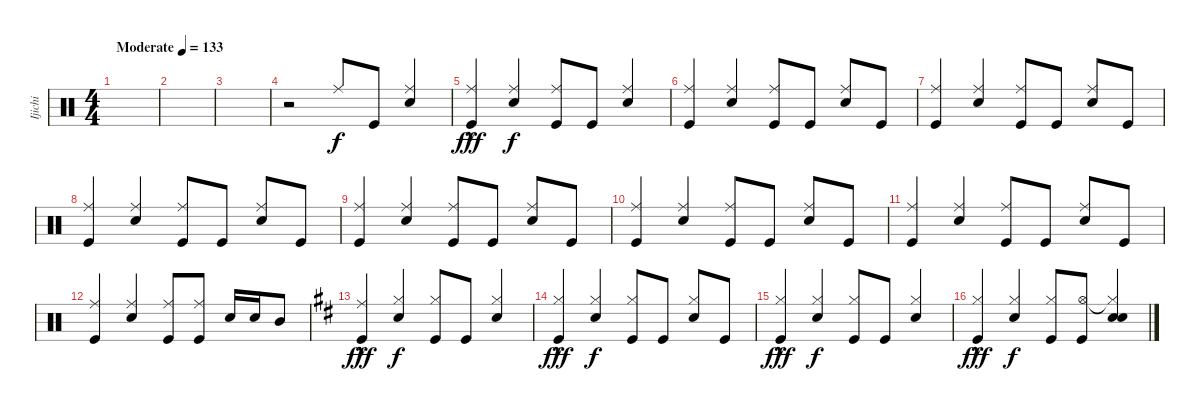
\track ("Ijichi" "Ijichi") {instrument percussion}
\staff {score}
\articulation defaults
\ts (4 4)
\tempo (133 "Moderate")
\clef neutral
\ks c
|
|
|
r.2 "Ride (middle)".8{beam Up} "Kick (hit)".8{beam Up} ("Ride (middle)" "Snare (hit) 2").4{beam Up} |
("Ride (middle)"{hac} "Kick (hit)").4{dy fff beam Up} ("Ride (middle)" "Snare (hit) 2").4{dy f beam Up} ("Ride (middle)" "Kick (hit)").8{beam Up} "Kick (hit)".8{beam Up} ("Ride (middle)" "Snare (hit) 2").4{beam Up} |
("Ride (middle)" "Kick (hit)").4{beam Up} ("Ride (middle)" "Snare (hit) 2").4{beam Up} ("Ride (middle)" "Kick (hit)").8{beam Up} "Kick (hit)".8{beam Up} ("Ride (middle)" "Snare (hit) 2").8{beam Up} "Kick (hit)".8{beam Up} |
("Ride (middle)" "Kick (hit)").4{beam Up} ("Ride (middle)" "Snare (hit) 2").4{beam Up} ("Ride (middle)" "Kick (hit)").8{beam Up} "Kick (hit)".8{beam Up} ("Ride (middle)" "Snare (hit) 2").8{beam Up} "Kick (hit)".8{beam Up} |
("Ride (middle)" "Kick (hit)").4{beam Up} ("Ride (middle)" "Snare (hit) 2").4{beam Up} ("Ride (middle)" "Kick (hit)").8{beam Up} "Kick (hit)".8{beam Up} ("Ride (middle)" "Snare (hit) 2").8{beam Up} "Kick (hit)".8{beam Up} |
("Ride (middle)" "Kick (hit)").4{beam Up} ("Ride (middle)" "Snare (hit) 2").4{beam Up} ("Ride (middle)" "Kick (hit)").8{beam Up} "Kick (hit)".8{beam Up} ("Ride (middle)" "Snare (hit) 2").8{beam Up} "Kick (hit)".8{beam Up} |
("Ride (middle)" "Kick (hit)").4{beam Up} ("Ride (middle)" "Snare (hit) 2").4{beam Up} ("Ride (middle)" "Kick (hit)").8{beam Up} "Kick (hit)".8{beam Up} ("Ride (middle)" "Snare (hit) 2").8{beam Up} "Kick (hit)".8{beam Up} |
("Ride (middle)" "Kick (hit)").4{beam Up} ("Ride (middle)" "Snare (hit) 2").4{beam Up} ("Ride (middle)" "Kick (hit)").8{beam Up} "Kick (hit)".8{beam Up} ("Ride (middle)" "Snare (hit) 2").8{beam Up} "Kick (hit)".8{beam Up} |
("Ride (middle)" "Kick (hit)").4{beam Up} ("Ride (middle)" "Snare (hit) 2").4{beam Up} ("Ride (middle)" "Kick (hit)").8{beam Up} ("Ride (middle)" "Kick (hit)").8{beam Up} "Snare (hit) 2".16{beam Up} "Snare (hit) 2".16{beam Up} "Mid Tom (hit)".8{beam Up} |
\ks d
("Ride (middle)"{hac} "Kick (hit)").4{dy fff beam Up} ("Hi-Hat (closed)" "Snare (hit) 2").4{dy f beam Up} ("Hi-Hat (closed)" "Kick (hit)").8{beam Up} "Kick (hit)".8{beam Up} ("Hi-Hat (closed)" "Snare (hit) 2").4{beam Up} |
("Hi-Hat (closed)"{hac} "Kick (hit)").4{dy fff beam Up} ("Hi-Hat (closed)" "Snare (hit) 2").4{dy f beam Up} ("Hi-Hat (closed)" "Kick (hit)").8{beam Up} "Kick (hit)".8{beam Up} ("Hi-Hat (closed)" "Snare (hit) 2").8{beam Up} "Kick (hit)".8{beam Up} |
("Hi-Hat (closed)"{hac} "Kick (hit)").4{dy fff beam Up} ("Hi-Hat (closed)" "Snare (hit) 2").4{dy f beam Up} ("Hi-Hat (closed)" "Kick (hit)").8{beam Up} "Kick (hit)".8{beam Up} ("Hi-Hat (closed)" "Snare (hit) 2").4{beam Up} |
("Hi-Hat (closed)"{hac} "Kick (hit)").4{dy fff beam Up} ("Hi-Hat (closed)" "Snare (hit) 2").4{dy f beam Up} ("Hi-Hat (closed)" "Kick (hit)").8{beam Up} ("Hi-Hat (open)" "Kick (hit)").8{beam Up} ("Hi-Hat (closed)"{t} "Snare (hit) 2" "Snare (hit) 2").4{beam Up}
